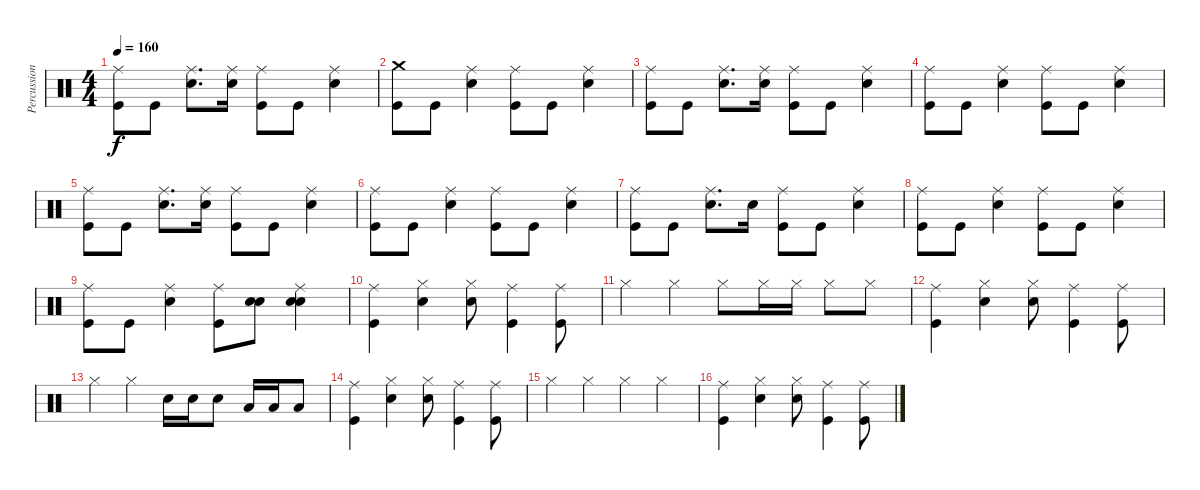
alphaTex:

\track ("Percussion" "Percussion") {instrument percussion}
\staff {score}
\articulation defaults
\ts (4 4)
\tempo 160
\clef neutral
\ks c
("Ride (middle)" "Kick (hit)").8{dy f} "Kick (hit)".8 ("Ride (middle)" "Snare (hit) 2").8{d} ("Ride (middle)" "Snare (hit) 2").16 ("Ride (middle)" "Kick (hit)").8 "Kick (hit)".8 ("Ride (middle)" "Snare (hit) 2").4 |
("Crash medium (hit)" "Kick (hit)").8 "Kick (hit)".8 ("Ride (middle)" "Snare (hit) 2").4 ("Ride (middle)" "Kick (hit)").8 "Kick (hit)".8 ("Ride (middle)" "Snare (hit) 2").4 |
("Ride (middle)" "Kick (hit)").8 "Kick (hit)".8 ("Ride (middle)" "Snare (hit) 2").8{d} ("Ride (middle)" "Snare (hit) 2").16 ("Ride (middle)" "Kick (hit)").8 "Kick (hit)".8 ("Ride (middle)" "Snare (hit) 2").4 |
("Ride (middle)" "Kick (hit)").8 "Kick (hit)".8 ("Ride (middle)" "Snare (hit) 2").4 ("Ride (middle)" "Kick (hit)").8 "Kick (hit)".8 ("Ride (middle)" "Snare (hit) 2").4 |
("Ride (middle)" "Kick (hit)").8 "Kick (hit)".8 ("Ride (middle)" "Snare (hit) 2").8{d} ("Ride (middle)" "Snare (hit) 2").16 ("Ride (middle)" "Kick (hit)").8 "Kick (hit)".8 ("Ride (middle)" "Snare (hit) 2").4 |
("Ride (middle)" "Kick (hit)").8 "Kick (hit)".8 ("Ride (middle)" "Snare (hit) 2").4 ("Ride (middle)" "Kick (hit)").8 "Kick (hit)".8 ("Ride (middle)" "Snare (hit) 2").4 |
("Ride (middle)" "Kick (hit)").8 "Kick (hit)".8 ("Ride (middle)" "Snare (hit) 2").8{d} "Snare (hit) 2".16 ("Ride (middle)" "Kick (hit)").8 "Kick (hit)".8 ("Ride (middle)" "Snare (hit) 2").4 |
("Ride (middle)" "Kick (hit)").8 "Kick (hit)".8 ("Ride (middle)" "Snare (hit) 2").4 ("Ride (middle)" "Kick (hit)").8 "Kick (hit)".8 ("Ride (middle)" "Snare (hit) 2").4 |
("Ride (middle)" "Kick (hit)").8 "Kick (hit)".8 ("Ride (middle)" "Snare (hit) 2").4 ("Ride (middle)" "Kick (hit)").8 ("Snare (hit) 2" "Snare (hit) 2").8 ("Ride (middle)" "Snare (hit) 2" "Snare (hit) 2").4 |
("Ride (middle)" "Kick (hit)").4 ("Hi-Hat (closed)" "Snare (hit) 2").4 ("Hi-Hat (closed)" "Snare (hit) 2").8 ("Ride (middle)" "Kick (hit)").4 ("Ride (middle)" "Kick (hit)").8 |
"Hi-Hat (closed)".4 "Hi-Hat (closed)".4 "Hi-Hat (closed)".8 "Hi-Hat (closed)".16 "Hi-Hat (closed)".16 "Hi-Hat (closed)".8 "Hi-Hat (closed)".8 |
("Ride (middle)" "Kick (hit)").4 ("Hi-Hat (closed)" "Snare (hit) 2").4 ("Hi-Hat (closed)" "Snare (hit) 2").8 ("Ride (middle)" "Kick (hit)").4 ("Ride (middle)" "Kick (hit)").8 |
"Hi-Hat (closed)".4 "Hi-Hat (closed)".4 "Snare (hit) 2".16 "Snare (hit) 2".16 "Snare (hit) 2".8 "Low Tom (hit)".16 "Low Tom (hit)".16 "Low Tom (hit)".8 |
("Ride (middle)" "Kick (hit)").4 ("Hi-Hat (closed)" "Snare (hit) 2").4 ("Hi-Hat (closed)" "Snare (hit) 2").8 ("Ride (middle)" "Kick (hit)").4 ("Ride (middle)" "Kick (hit)").8 |
"Hi-Hat (closed)".4 "Hi-Hat (closed)".4 "Hi-Hat (closed)".4 "Hi-Hat (closed)".4 |
("Ride (middle)" "Kick (hit)").4 ("Hi-Hat (closed)" "Snare (hit) 2").4 ("Hi-Hat (closed)" "Snare (hit) 2").8 ("Ride (middle)" "Kick (hit)").4 ("Ride (middle)" "Kick (hit)").8
